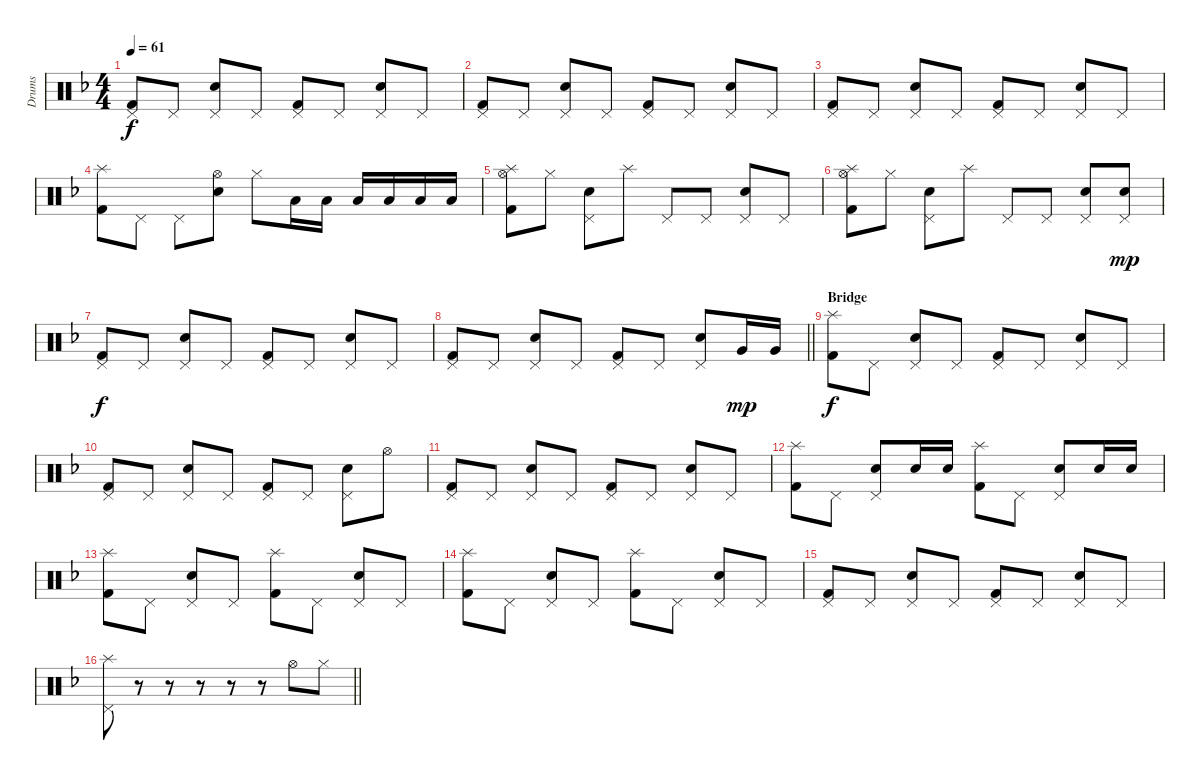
\track ("Drums" "Drums") {instrument percussion}
\staff {score}
\articulation defaults
\ts (4 4)
\tempo 61
\clef neutral
\ks f
("Pedal Hi-Hat (hit)" "Kick (hit) 2").8{dy f} "Pedal Hi-Hat (hit)".8 ("Pedal Hi-Hat (hit)" "Snare (hit) 2").8 "Pedal Hi-Hat (hit)".8 ("Pedal Hi-Hat (hit)" "Kick (hit) 2").8 "Pedal Hi-Hat (hit)".8 ("Pedal Hi-Hat (hit)" "Snare (hit) 2").8 "Pedal Hi-Hat (hit)".8 |
("Pedal Hi-Hat (hit)" "Kick (hit) 2").8 "Pedal Hi-Hat (hit)".8 ("Pedal Hi-Hat (hit)" "Snare (hit) 2").8 "Pedal Hi-Hat (hit)".8 ("Pedal Hi-Hat (hit)" "Kick (hit) 2").8 "Pedal Hi-Hat (hit)".8 ("Pedal Hi-Hat (hit)" "Snare (hit) 2").8 "Pedal Hi-Hat (hit)".8 |
("Pedal Hi-Hat (hit)" "Kick (hit) 2").8 "Pedal Hi-Hat (hit)".8 ("Pedal Hi-Hat (hit)" "Snare (hit) 2").8 "Pedal Hi-Hat (hit)".8 ("Pedal Hi-Hat (hit)" "Kick (hit) 2").8 "Pedal Hi-Hat (hit)".8 ("Pedal Hi-Hat (hit)" "Snare (hit) 2").8 "Pedal Hi-Hat (hit)".8 |
("Splash (hit)" "Kick (hit) 2").8 "Pedal Hi-Hat (hit)".8 "Pedal Hi-Hat (hit)".8 ("Hi-Hat (open)" "Snare (hit) 2").8 "Hi-Hat (closed)".8 "Low Tom (hit)".16 "Low Tom (hit)".16 "Low Tom (hit)".16 "Low Tom (hit)".16 "Low Tom (hit)".16 "Low Tom (hit)".16 |
("Splash (hit)" "Hi-Hat (open)" "Kick (hit) 2").8 "Hi-Hat (closed)".8 ("Pedal Hi-Hat (hit)" "Snare (hit) 2").8 "Splash (hit)".8 "Pedal Hi-Hat (hit)".8 "Pedal Hi-Hat (hit)".8 ("Pedal Hi-Hat (hit)" "Snare (hit) 2").8 "Pedal Hi-Hat (hit)".8 |
("Splash (hit)" "Hi-Hat (open)" "Kick (hit) 2").8 "Hi-Hat (closed)".8 ("Pedal Hi-Hat (hit)" "Snare (hit) 2").8 "Splash (hit)".8 "Pedal Hi-Hat (hit)".8 "Pedal Hi-Hat (hit)".8 ("Pedal Hi-Hat (hit)" "Snare (hit) 2").8 ("Pedal Hi-Hat (hit)" "Snare (hit) 2").8{dy mp} |
("Pedal Hi-Hat (hit)" "Kick (hit) 2").8{dy f} "Pedal Hi-Hat (hit)".8 ("Pedal Hi-Hat (hit)" "Snare (hit) 2").8 "Pedal Hi-Hat (hit)".8 ("Pedal Hi-Hat (hit)" "Kick (hit) 2").8 "Pedal Hi-Hat (hit)".8 ("Pedal Hi-Hat (hit)" "Snare (hit) 2").8 "Pedal Hi-Hat (hit)".8 |
\barLineRight lightlight
("Pedal Hi-Hat (hit)" "Kick (hit) 2").8 "Pedal Hi-Hat (hit)".8 ("Pedal Hi-Hat (hit)" "Snare (hit) 2").8 "Pedal Hi-Hat (hit)".8 ("Pedal Hi-Hat (hit)" "Kick (hit) 2").8 "Pedal Hi-Hat (hit)".8 ("Pedal Hi-Hat (hit)" "Snare (hit) 2").8 "Very Low Tom (hit)".16{dy mp} "Very Low Tom (hit)".16 |
\section ("" "Bridge")
("Splash (hit)" "Kick (hit) 2").8{dy f} "Pedal Hi-Hat (hit)".8 ("Pedal Hi-Hat (hit)" "Snare (hit) 2").8 "Pedal Hi-Hat (hit)".8 ("Pedal Hi-Hat (hit)" "Kick (hit) 2").8 "Pedal Hi-Hat (hit)".8 ("Pedal Hi-Hat (hit)" "Snare (hit) 2").8 "Pedal Hi-Hat (hit)".8 |
("Pedal Hi-Hat (hit)" "Kick (hit) 2").8 "Pedal Hi-Hat (hit)".8 ("Pedal Hi-Hat (hit)" "Snare (hit) 2").8 "Pedal Hi-Hat (hit)".8 ("Pedal Hi-Hat (hit)" "Kick (hit) 2").8 "Pedal Hi-Hat (hit)".8 ("Pedal Hi-Hat (hit)" "Snare (hit) 2").8 "Hi-Hat (open)".8 |
("Pedal Hi-Hat (hit)" "Kick (hit) 2").8 "Pedal Hi-Hat (hit)".8 ("Pedal Hi-Hat (hit)" "Snare (hit) 2").8 "Pedal Hi-Hat (hit)".8 ("Pedal Hi-Hat (hit)" "Kick (hit) 2").8 "Pedal Hi-Hat (hit)".8 ("Pedal Hi-Hat (hit)" "Snare (hit) 2").8 "Pedal Hi-Hat (hit)".8 |
("Splash (hit)" "Kick (hit) 2").8 "Pedal Hi-Hat (hit)".8 ("Pedal Hi-Hat (hit)" "Snare (hit) 2").8 "Snare (hit) 2".16 "Snare (hit) 2".16 ("Splash (hit)" "Kick (hit) 2").8 "Pedal Hi-Hat (hit)".8 ("Pedal Hi-Hat (hit)" "Snare (hit) 2").8 "Snare (hit) 2".16 "Snare (hit) 2".16 |
("Splash (hit)" "Kick (hit) 2").8 "Pedal Hi-Hat (hit)".8 ("Pedal Hi-Hat (hit)" "Snare (hit) 2").8 "Pedal Hi-Hat (hit)".8 ("Splash (hit)" "Kick (hit) 2").8 "Pedal Hi-Hat (hit)".8 ("Pedal Hi-Hat (hit)" "Snare (hit) 2").8 "Pedal Hi-Hat (hit)".8 |
("Splash (hit)" "Kick (hit) 2").8 "Pedal Hi-Hat (hit)".8 ("Pedal Hi-Hat (hit)" "Snare (hit) 2").8 "Pedal Hi-Hat (hit)".8 ("Splash (hit)" "Kick (hit) 2").8 "Pedal Hi-Hat (hit)".8 ("Pedal Hi-Hat (hit)" "Snare (hit) 2").8 "Pedal Hi-Hat (hit)".8 |
("Pedal Hi-Hat (hit)" "Kick (hit) 2").8 "Pedal Hi-Hat (hit)".8 ("Pedal Hi-Hat (hit)" "Snare (hit) 2").8 "Pedal Hi-Hat (hit)".8 ("Pedal Hi-Hat (hit)" "Kick (hit) 2").8 "Pedal Hi-Hat (hit)".8 ("Pedal Hi-Hat (hit)" "Snare (hit) 2").8 "Pedal Hi-Hat (hit)".8 |
\barLineRight lightlight
("Splash (hit)" "Pedal Hi-Hat (hit)").8 r.8 r.8 r.8 r.8 r.8 "Hi-Hat (open)".8 "Hi-Hat (closed)".8
